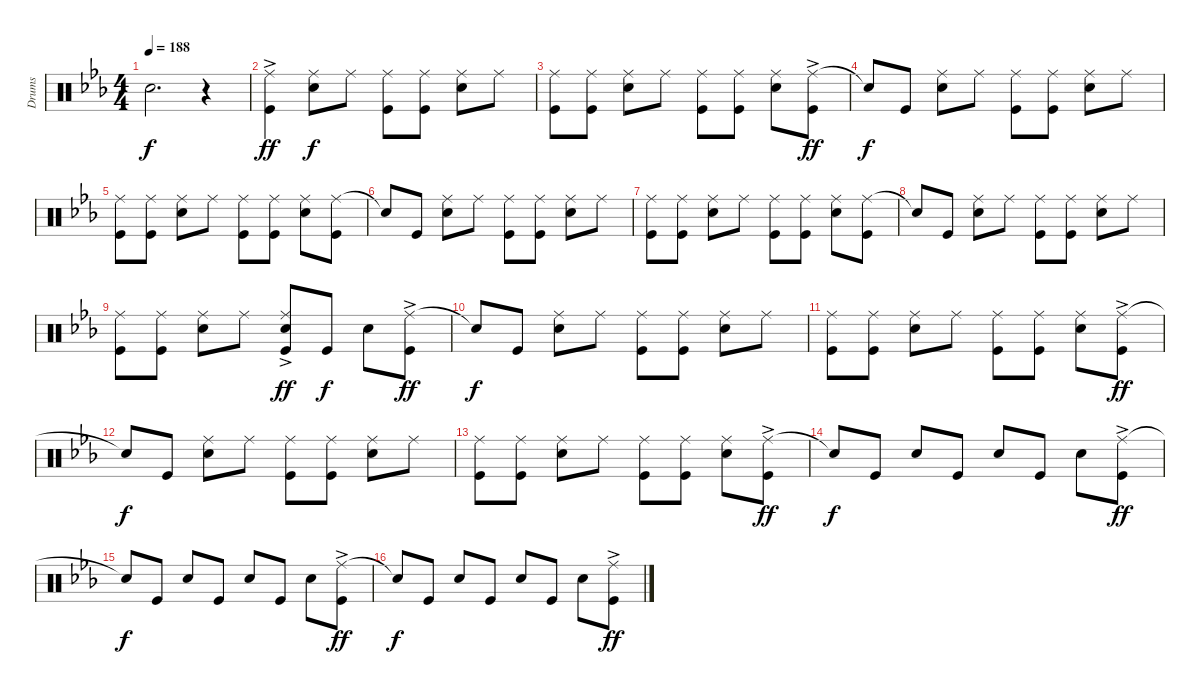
\track ("Drums" "Drums") {instrument percussion}
\staff {score}
\articulation defaults
\ts (4 4)
\tempo 188
\clef neutral
\ks eb "Snare (hit)"{t}.2{d dy f}
r.4 |
("Ride (middle)"{ac} "Kick (hit)").4{dy ff} ("Ride (middle)" "Snare (hit) 2").8{dy f} "Ride (middle)".8 ("Ride (middle)" "Kick (hit)").8 ("Ride (middle)" "Kick (hit)").8 ("Ride (middle)" "Snare (hit) 2").8 "Ride (middle)".8 |
("Ride (middle)" "Kick (hit)").8 ("Ride (middle)" "Kick (hit)").8 ("Ride (middle)" "Snare (hit) 2").8 "Ride (middle)".8 ("Ride (middle)" "Kick (hit)").8 ("Ride (middle)" "Kick (hit)").8 ("Ride (middle)" "Snare (hit) 2").8 ("Ride (middle)"{ac} "Kick (hit)").8{dy ff} |
"Snare (hit)"{t}.8{dy f} "Kick (hit)".8 ("Ride (middle)" "Snare (hit) 2").8 "Ride (middle)".8 ("Ride (middle)" "Kick (hit)").8 ("Ride (middle)" "Kick (hit)").8 ("Ride (middle)" "Snare (hit) 2").8 "Ride (middle)".8 |
("Ride (middle)" "Kick (hit)").8 ("Ride (middle)" "Kick (hit)").8 ("Ride (middle)" "Snare (hit) 2").8 "Ride (middle)".8 ("Ride (middle)" "Kick (hit)").8 ("Ride (middle)" "Kick (hit)").8 ("Ride (middle)" "Snare (hit) 2").8 ("Ride (middle)" "Kick (hit)").8 |
"Snare (hit)"{t}.8 "Kick (hit)".8 ("Ride (middle)" "Snare (hit) 2").8 "Ride (middle)".8 ("Ride (middle)" "Kick (hit)").8 ("Ride (middle)" "Kick (hit)").8 ("Ride (middle)" "Snare (hit) 2").8 "Ride (middle)".8 |
("Ride (middle)" "Kick (hit)").8 ("Ride (middle)" "Kick (hit)").8 ("Ride (middle)" "Snare (hit) 2").8 "Ride (middle)".8 ("Ride (middle)" "Kick (hit)").8 ("Ride (middle)" "Kick (hit)").8 ("Ride (middle)" "Snare (hit) 2").8 ("Ride (middle)" "Kick (hit)").8 |
"Snare (hit)"{t}.8 "Kick (hit)".8 ("Ride (middle)" "Snare (hit) 2").8 "Ride (middle)".8 ("Ride (middle)" "Kick (hit)").8 ("Ride (middle)" "Kick (hit)").8 ("Ride (middle)" "Snare (hit) 2").8 "Ride (middle)".8 |
("Ride (middle)" "Kick (hit)").8 ("Ride (middle)" "Kick (hit)").8 ("Ride (middle)" "Snare (hit) 2").8 "Ride (middle)".8 ("Ride (middle)"{ac} "Snare (hit) 2" "Kick (hit)").8{dy ff} "Kick (hit)".8{dy f} "Snare (hit) 2".8 ("Ride (middle)"{ac} "Kick (hit)").8{dy ff} |
"Snare (hit)"{t}.8{dy f} "Kick (hit)".8 ("Ride (middle)" "Snare (hit) 2").8 "Ride (middle)".8 ("Ride (middle)" "Kick (hit)").8 ("Ride (middle)" "Kick (hit)").8 ("Ride (middle)" "Snare (hit) 2").8 "Ride (middle)".8 |
("Ride (middle)" "Kick (hit)").8 ("Ride (middle)" "Kick (hit)").8 ("Ride (middle)" "Snare (hit) 2").8 "Ride (middle)".8 ("Ride (middle)" "Kick (hit)").8 ("Ride (middle)" "Kick (hit)").8 ("Ride (middle)" "Snare (hit) 2").8 ("Ride (middle)"{ac} "Kick (hit)").8{dy ff} |
"Snare (hit)"{t}.8{dy f} "Kick (hit)".8 ("Ride (middle)" "Snare (hit) 2").8 "Ride (middle)".8 ("Ride (middle)" "Kick (hit)").8 ("Ride (middle)" "Kick (hit)").8 ("Ride (middle)" "Snare (hit) 2").8 "Ride (middle)".8 |
("Ride (middle)" "Kick (hit)").8 ("Ride (middle)" "Kick (hit)").8 ("Ride (middle)" "Snare (hit) 2").8 "Ride (middle)".8 ("Ride (middle)" "Kick (hit)").8 ("Ride (middle)" "Kick (hit)").8 ("Ride (middle)" "Snare (hit) 2").8 ("Ride (middle)"{ac} "Kick (hit)").8{dy ff} |
"Snare (hit)"{t}.8{dy f} "Kick (hit)".8 "Snare (hit) 2".8 "Kick (hit)".8 "Snare (hit) 2".8 "Kick (hit)".8 "Snare (hit) 2".8 ("Ride (middle)"{ac} "Kick (hit)").8{dy ff} |
"Snare (hit)"{t}.8{dy f} "Kick (hit)".8 "Snare (hit) 2".8 "Kick (hit)".8 "Snare (hit) 2".8 "Kick (hit)".8 "Snare (hit) 2".8 ("Ride (middle)"{ac} "Kick (hit)").8{dy ff} |
"Snare (hit)"{t}.8{dy f} "Kick (hit)".8 "Snare (hit) 2".8 "Kick (hit)".8 "Snare (hit) 2".8 "Kick (hit)".8 "Snare (hit) 2".8 ("Ride (middle)"{ac} "Kick (hit)").8{dy ff}
